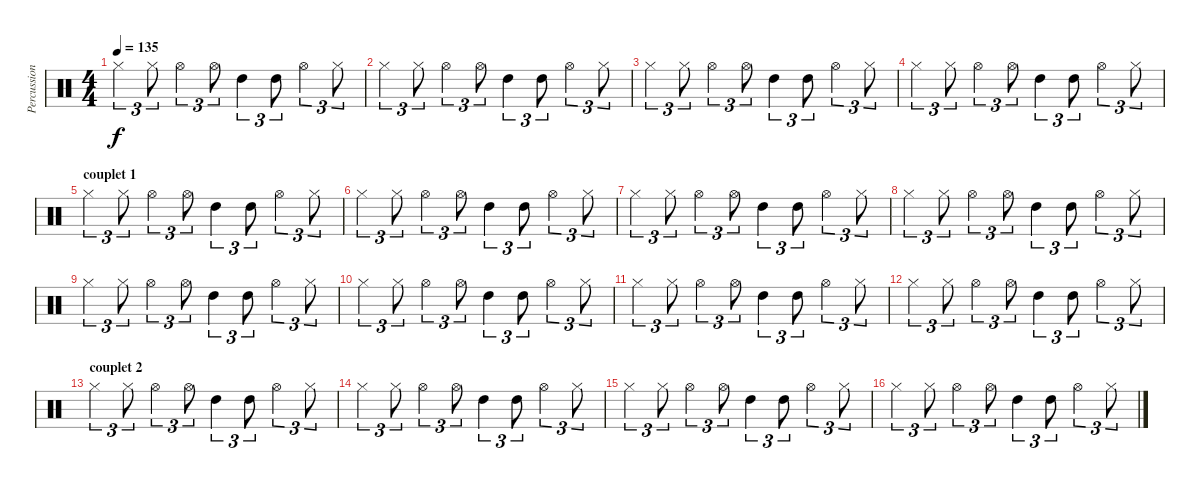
\track ("Percussions" "Percussion") {instrument percussion}
\staff {score}
\articulation defaults
\ts (4 4)
\tempo 135
\clef neutral
\ks c "Hi-Hat (closed)".4{tu (3 2) dy f} "Hi-Hat (closed)".8{tu (3 2)} "Hi-Hat (open)".4{tu (3 2)} "Hi-Hat (open)".8{tu (3 2)} "High Tom (hit)".4{tu (3 2)} "High Tom (hit)".8{tu (3 2)} "Hi-Hat (open)".4{tu (3 2)} "Hi-Hat (closed)".8{tu (3 2)}
|
"Hi-Hat (closed)".4{tu (3 2)} "Hi-Hat (closed)".8{tu (3 2)} "Hi-Hat (open)".4{tu (3 2)} "Hi-Hat (open)".8{tu (3 2)} "High Tom (hit)".4{tu (3 2)} "High Tom (hit)".8{tu (3 2)} "Hi-Hat (open)".4{tu (3 2)} "Hi-Hat (closed)".8{tu (3 2)} |
"Hi-Hat (closed)".4{tu (3 2)} "Hi-Hat (closed)".8{tu (3 2)} "Hi-Hat (open)".4{tu (3 2)} "Hi-Hat (open)".8{tu (3 2)} "High Tom (hit)".4{tu (3 2)} "High Tom (hit)".8{tu (3 2)} "Hi-Hat (open)".4{tu (3 2)} "Hi-Hat (closed)".8{tu (3 2)} |
"Hi-Hat (closed)".4{tu (3 2)} "Hi-Hat (closed)".8{tu (3 2)} "Hi-Hat (open)".4{tu (3 2)} "Hi-Hat (open)".8{tu (3 2)} "High Tom (hit)".4{tu (3 2)} "High Tom (hit)".8{tu (3 2)} "Hi-Hat (open)".4{tu (3 2)} "Hi-Hat (closed)".8{tu (3 2)} |
\section ("" "couplet 1")
"Hi-Hat (closed)".4{tu (3 2)} "Hi-Hat (closed)".8{tu (3 2)} "Hi-Hat (open)".4{tu (3 2)} "Hi-Hat (open)".8{tu (3 2)} "High Tom (hit)".4{tu (3 2)} "High Tom (hit)".8{tu (3 2)} "Hi-Hat (open)".4{tu (3 2)} "Hi-Hat (closed)".8{tu (3 2)} |
"Hi-Hat (closed)".4{tu (3 2)} "Hi-Hat (closed)".8{tu (3 2)} "Hi-Hat (open)".4{tu (3 2)} "Hi-Hat (open)".8{tu (3 2)} "High Tom (hit)".4{tu (3 2)} "High Tom (hit)".8{tu (3 2)} "Hi-Hat (open)".4{tu (3 2)} "Hi-Hat (closed)".8{tu (3 2)} |
"Hi-Hat (closed)".4{tu (3 2)} "Hi-Hat (closed)".8{tu (3 2)} "Hi-Hat (open)".4{tu (3 2)} "Hi-Hat (open)".8{tu (3 2)} "High Tom (hit)".4{tu (3 2)} "High Tom (hit)".8{tu (3 2)} "Hi-Hat (open)".4{tu (3 2)} "Hi-Hat (closed)".8{tu (3 2)} |
"Hi-Hat (closed)".4{tu (3 2)} "Hi-Hat (closed)".8{tu (3 2)} "Hi-Hat (open)".4{tu (3 2)} "Hi-Hat (open)".8{tu (3 2)} "High Tom (hit)".4{tu (3 2)} "High Tom (hit)".8{tu (3 2)} "Hi-Hat (open)".4{tu (3 2)} "Hi-Hat (closed)".8{tu (3 2)} |
"Hi-Hat (closed)".4{tu (3 2)} "Hi-Hat (closed)".8{tu (3 2)} "Hi-Hat (open)".4{tu (3 2)} "Hi-Hat (open)".8{tu (3 2)} "High Tom (hit)".4{tu (3 2)} "High Tom (hit)".8{tu (3 2)} "Hi-Hat (open)".4{tu (3 2)} "Hi-Hat (closed)".8{tu (3 2)} |
"Hi-Hat (closed)".4{tu (3 2)} "Hi-Hat (closed)".8{tu (3 2)} "Hi-Hat (open)".4{tu (3 2)} "Hi-Hat (open)".8{tu (3 2)} "High Tom (hit)".4{tu (3 2)} "High Tom (hit)".8{tu (3 2)} "Hi-Hat (open)".4{tu (3 2)} "Hi-Hat (closed)".8{tu (3 2)} |
"Hi-Hat (closed)".4{tu (3 2)} "Hi-Hat (closed)".8{tu (3 2)} "Hi-Hat (open)".4{tu (3 2)} "Hi-Hat (open)".8{tu (3 2)} "High Tom (hit)".4{tu (3 2)} "High Tom (hit)".8{tu (3 2)} "Hi-Hat (open)".4{tu (3 2)} "Hi-Hat (closed)".8{tu (3 2)} |
"Hi-Hat (closed)".4{tu (3 2)} "Hi-Hat (closed)".8{tu (3 2)} "Hi-Hat (open)".4{tu (3 2)} "Hi-Hat (open)".8{tu (3 2)} "High Tom (hit)".4{tu (3 2)} "High Tom (hit)".8{tu (3 2)} "Hi-Hat (open)".4{tu (3 2)} "Hi-Hat (closed)".8{tu (3 2)} |
\section ("" "couplet 2")
"Hi-Hat (closed)".4{tu (3 2)} "Hi-Hat (closed)".8{tu (3 2)} "Hi-Hat (open)".4{tu (3 2)} "Hi-Hat (open)".8{tu (3 2)} "High Tom (hit)".4{tu (3 2)} "High Tom (hit)".8{tu (3 2)} "Hi-Hat (open)".4{tu (3 2)} "Hi-Hat (closed)".8{tu (3 2)} |
"Hi-Hat (closed)".4{tu (3 2)} "Hi-Hat (closed)".8{tu (3 2)} "Hi-Hat (open)".4{tu (3 2)} "Hi-Hat (open)".8{tu (3 2)} "High Tom (hit)".4{tu (3 2)} "High Tom (hit)".8{tu (3 2)} "Hi-Hat (open)".4{tu (3 2)} "Hi-Hat (closed)".8{tu (3 2)} |
"Hi-Hat (closed)".4{tu (3 2)} "Hi-Hat (closed)".8{tu (3 2)} "Hi-Hat (open)".4{tu (3 2)} "Hi-Hat (open)".8{tu (3 2)} "High Tom (hit)".4{tu (3 2)} "High Tom (hit)".8{tu (3 2)} "Hi-Hat (open)".4{tu (3 2)} "Hi-Hat (closed)".8{tu (3 2)} |
"Hi-Hat (closed)".4{tu (3 2)} "Hi-Hat (closed)".8{tu (3 2)} "Hi-Hat (open)".4{tu (3 2)} "Hi-Hat (open)".8{tu (3 2)} "High Tom (hit)".4{tu (3 2)} "High Tom (hit)".8{tu (3 2)} "Hi-Hat (open)".4{tu (3 2)} "Hi-Hat (closed)".8{tu (3 2)}
